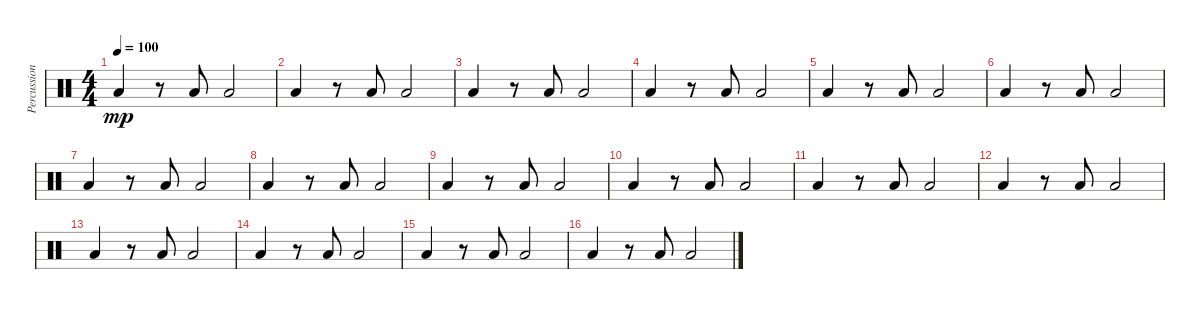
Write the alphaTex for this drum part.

\track ("Percussion" "Percussion") {instrument percussion}
\staff {score}
\articulation defaults
\ts (4 4)
\tempo 100
\clef neutral
\ks c "Low Floor Tom (hit)".4{dy mp}
r.8 "Low Tom (hit)".8 "Low Floor Tom (hit)".2 |
"Low Floor Tom (hit)".4 r.8 "Low Tom (hit)".8 "Low Floor Tom (hit)".2 |
"Low Floor Tom (hit)".4 r.8 "Low Tom (hit)".8 "Low Floor Tom (hit)".2 |
"Low Floor Tom (hit)".4 r.8 "Low Tom (hit)".8 "Low Floor Tom (hit)".2 |
"Low Floor Tom (hit)".4 r.8 "Low Tom (hit)".8 "Low Floor Tom (hit)".2 |
"Low Floor Tom (hit)".4 r.8 "Low Tom (hit)".8 "Low Floor Tom (hit)".2 |
"Low Floor Tom (hit)".4 r.8 "Low Tom (hit)".8 "Low Floor Tom (hit)".2 |
"Low Floor Tom (hit)".4 r.8 "Low Tom (hit)".8 "Low Floor Tom (hit)".2 |
"Low Floor Tom (hit)".4 r.8 "Low Tom (hit)".8 "Low Floor Tom (hit)".2 |
"Low Floor Tom (hit)".4 r.8 "Low Tom (hit)".8 "Low Floor Tom (hit)".2 |
"Low Floor Tom (hit)".4 r.8 "Low Tom (hit)".8 "Low Floor Tom (hit)".2 |
"Low Floor Tom (hit)".4 r.8 "Low Tom (hit)".8 "Low Floor Tom (hit)".2 |
"Low Floor Tom (hit)".4 r.8 "Low Tom (hit)".8 "Low Floor Tom (hit)".2 |
"Low Floor Tom (hit)".4 r.8 "Low Tom (hit)".8 "Low Floor Tom (hit)".2 |
"Low Floor Tom (hit)".4 r.8 "Low Tom (hit)".8 "Low Floor Tom (hit)".2 |
"Low Floor Tom (hit)".4 r.8 "Low Tom (hit)".8 "Low Floor Tom (hit)".2
